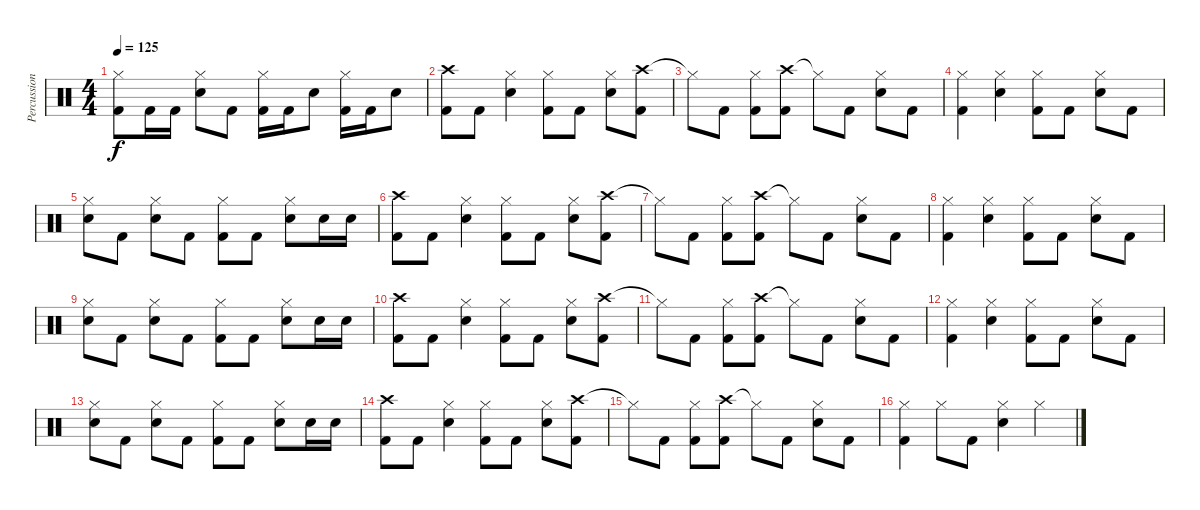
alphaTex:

\track ("Percussioni" "Percussion") {instrument percussion}
\staff {score}
\articulation defaults
\ts (4 4)
\tempo 125
\clef neutral
\ks c
("Hi-Hat (closed)" "Kick (hit) 2").8{dy f} "Kick (hit) 2".16 "Kick (hit) 2".16 ("Hi-Hat (closed)" "Snare (hit) 2").8 "Kick (hit) 2".8 ("Hi-Hat (closed)" "Kick (hit) 2").16 "Kick (hit) 2".16 "Snare (hit) 2".8 ("Hi-Hat (closed)" "Kick (hit) 2").16 "Kick (hit) 2".16 "Snare (hit) 2".8 |
("Crash high (hit)" "Kick (hit) 2").8 "Kick (hit) 2".8 ("Hi-Hat (closed)" "Snare (hit) 2").4 ("Hi-Hat (closed)" "Kick (hit) 2").8 "Kick (hit) 2".8 ("Hi-Hat (closed)" "Snare (hit) 2").8 ("Crash high (hit)" "Kick (hit) 2").8 |
"Hi-Hat (closed)"{t}.8 "Kick (hit) 2".8 ("Hi-Hat (closed)" "Kick (hit) 2").8 ("Crash high (hit)" "Kick (hit) 2").8 "Hi-Hat (closed)"{t}.8 "Kick (hit) 2".8 ("Hi-Hat (closed)" "Snare (hit) 2").8 "Kick (hit) 2".8 |
("Hi-Hat (closed)" "Kick (hit) 2").4 ("Hi-Hat (closed)" "Snare (hit) 2").4 ("Hi-Hat (closed)" "Kick (hit) 2").8 "Kick (hit) 2".8 ("Hi-Hat (closed)" "Snare (hit) 2").8 "Kick (hit) 2".8 |
("Hi-Hat (closed)" "Snare (hit) 2").8 "Kick (hit) 2".8 ("Hi-Hat (closed)" "Snare (hit) 2").8 "Kick (hit) 2".8 ("Hi-Hat (closed)" "Kick (hit) 2").8 "Kick (hit) 2".8 ("Hi-Hat (closed)" "Snare (hit) 2").8 "Snare (hit) 2".16 "Snare (hit) 2".16 |
("Crash high (hit)" "Kick (hit) 2").8 "Kick (hit) 2".8 ("Hi-Hat (closed)" "Snare (hit) 2").4 ("Hi-Hat (closed)" "Kick (hit) 2").8 "Kick (hit) 2".8 ("Hi-Hat (closed)" "Snare (hit) 2").8 ("Crash high (hit)" "Kick (hit) 2").8 |
"Hi-Hat (closed)"{t}.8 "Kick (hit) 2".8 ("Hi-Hat (closed)" "Kick (hit) 2").8 ("Crash high (hit)" "Kick (hit) 2").8 "Hi-Hat (closed)"{t}.8 "Kick (hit) 2".8 ("Hi-Hat (closed)" "Snare (hit) 2").8 "Kick (hit) 2".8 |
("Hi-Hat (closed)" "Kick (hit) 2").4 ("Hi-Hat (closed)" "Snare (hit) 2").4 ("Hi-Hat (closed)" "Kick (hit) 2").8 "Kick (hit) 2".8 ("Hi-Hat (closed)" "Snare (hit) 2").8 "Kick (hit) 2".8 |
("Hi-Hat (closed)" "Snare (hit) 2").8 "Kick (hit) 2".8 ("Hi-Hat (closed)" "Snare (hit) 2").8 "Kick (hit) 2".8 ("Hi-Hat (closed)" "Kick (hit) 2").8 "Kick (hit) 2".8 ("Hi-Hat (closed)" "Snare (hit) 2").8 "Snare (hit) 2".16 "Snare (hit) 2".16 |
("Crash high (hit)" "Kick (hit) 2").8 "Kick (hit) 2".8 ("Hi-Hat (closed)" "Snare (hit) 2").4 ("Hi-Hat (closed)" "Kick (hit) 2").8 "Kick (hit) 2".8 ("Hi-Hat (closed)" "Snare (hit) 2").8 ("Crash high (hit)" "Kick (hit) 2").8 |
"Hi-Hat (closed)"{t}.8 "Kick (hit) 2".8 ("Hi-Hat (closed)" "Kick (hit) 2").8 ("Crash high (hit)" "Kick (hit) 2").8 "Hi-Hat (closed)"{t}.8 "Kick (hit) 2".8 ("Hi-Hat (closed)" "Snare (hit) 2").8 "Kick (hit) 2".8 |
("Hi-Hat (closed)" "Kick (hit) 2").4 ("Hi-Hat (closed)" "Snare (hit) 2").4 ("Hi-Hat (closed)" "Kick (hit) 2").8 "Kick (hit) 2".8 ("Hi-Hat (closed)" "Snare (hit) 2").8 "Kick (hit) 2".8 |
("Hi-Hat (closed)" "Snare (hit) 2").8 "Kick (hit) 2".8 ("Hi-Hat (closed)" "Snare (hit) 2").8 "Kick (hit) 2".8 ("Hi-Hat (closed)" "Kick (hit) 2").8 "Kick (hit) 2".8 ("Hi-Hat (closed)" "Snare (hit) 2").8 "Snare (hit) 2".16 "Snare (hit) 2".16 |
("Crash high (hit)" "Kick (hit) 2").8 "Kick (hit) 2".8 ("Hi-Hat (closed)" "Snare (hit) 2").4 ("Hi-Hat (closed)" "Kick (hit) 2").8 "Kick (hit) 2".8 ("Hi-Hat (closed)" "Snare (hit) 2").8 ("Crash high (hit)" "Kick (hit) 2").8 |
"Hi-Hat (closed)"{t}.8 "Kick (hit) 2".8 ("Hi-Hat (closed)" "Kick (hit) 2").8 ("Crash high (hit)" "Kick (hit) 2").8 "Hi-Hat (closed)"{t}.8 "Kick (hit) 2".8 ("Hi-Hat (closed)" "Snare (hit) 2").8 "Kick (hit) 2".8 |
("Hi-Hat (closed)" "Kick (hit) 2").4 "Hi-Hat (closed)".8 "Kick (hit) 2".8 ("Hi-Hat (closed)" "Snare (hit) 2").4 "Hi-Hat (closed)".4
